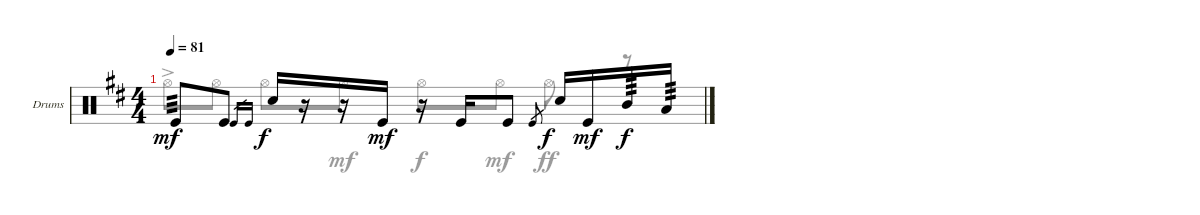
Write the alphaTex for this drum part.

\defaultSystemsLayout 4
\bracketExtendMode groupsimilarinstruments
\firstSystemTrackNameOrientation horizontal
\otherSystemsTrackNameOrientation horizontal
\track ("Drumkit" "Drums") {instrument percussion}
\staff {score}
\articulation defaults
\voice
\ts (4 4)
\tempo 81
\clef neutral
\ks bminor "Kick (hit)".8{tp 3 dy mf} "Kick (hit)".8 "Kick (hit)".16{gr} "Kick (hit)".16{gr} "Snare (hit) 2".16{dy f}
r.16 r.16 "Kick (hit)".16{dy mf} r.16 "Kick (hit)".16 "Kick (hit)".8 "Kick (hit)".8{gr} "Snare (hit) 2".16{dy f} "Kick (hit)".16{dy mf} "Mid Tom (hit)".16{tp 3 dy f} "Low Tom (hit)".16{tp 3} |
\voice
\clef neutral
\ottava regular
\simile none
\ks bminor "Hi-Hat (open)"{ac}.8{dy mf} "Hi-Hat (open)".8 "Hi-Hat (open)".8{dy f} "Hi-Hat (open)".8{dy mf} "Hi-Hat (open)".8{dy f} "Hi-Hat (open)".8{dy mf} "Hi-Hat (open)".8{dy ff}
r.8 |
